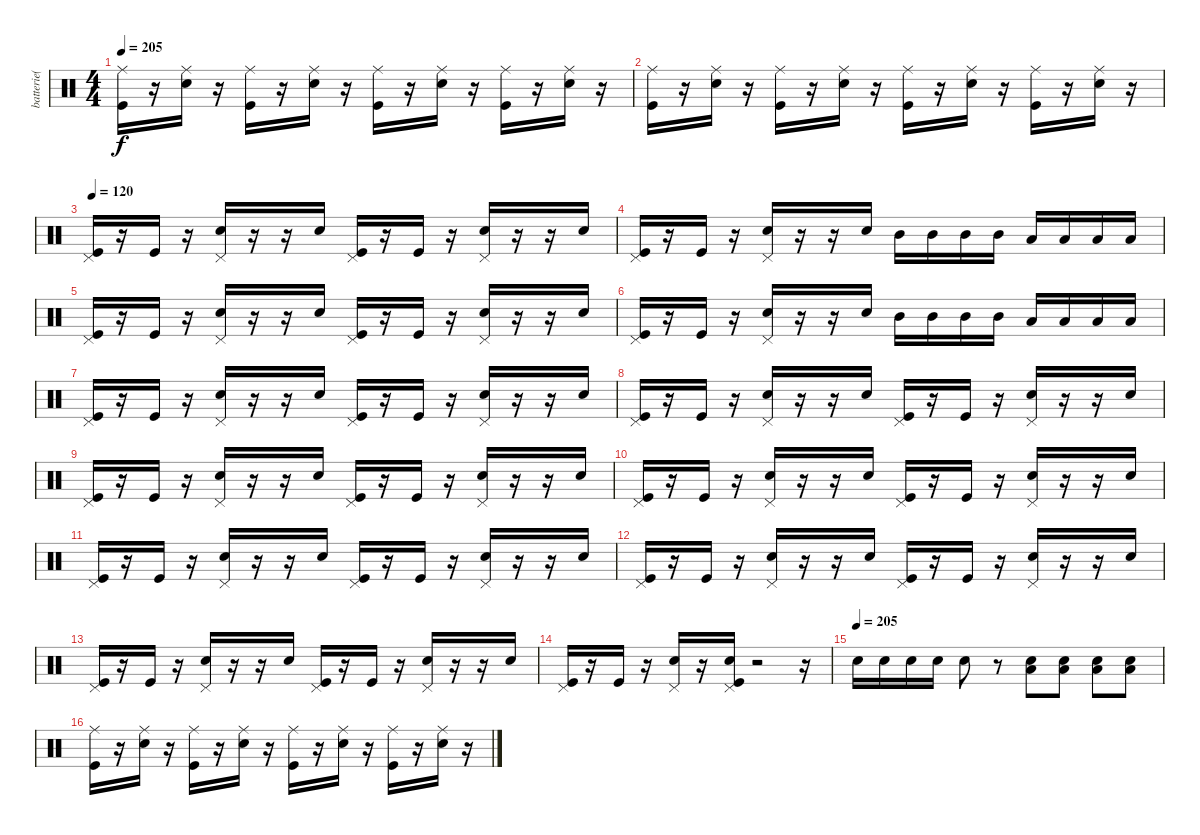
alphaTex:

\track ("batterie( Rob )" "batterie( ") {instrument percussion}
\staff {score}
\articulation defaults
\ts (4 4)
\tempo 205
\clef neutral
\ks c
("Ride (middle)" "Kick (hit)").16{dy f} r.16 ("Ride (middle)" "Snare (hit) 2").16 r.16 ("Ride (middle)" "Kick (hit)").16 r.16 ("Ride (middle)" "Snare (hit) 2").16 r.16 ("Ride (middle)" "Kick (hit)").16 r.16 ("Ride (middle)" "Snare (hit) 2").16 r.16 ("Ride (middle)" "Kick (hit)").16 r.16 ("Ride (middle)" "Snare (hit) 2").16 r.16 |
("Ride (middle)" "Kick (hit)").16 r.16 ("Ride (middle)" "Snare (hit) 2").16 r.16 ("Ride (middle)" "Kick (hit)").16 r.16 ("Ride (middle)" "Snare (hit) 2").16 r.16 ("Ride (middle)" "Kick (hit)").16 r.16 ("Ride (middle)" "Snare (hit) 2").16 r.16 ("Ride (middle)" "Kick (hit)").16 r.16 ("Ride (middle)" "Snare (hit) 2").16 r.16 |
\tempo 120
("Pedal Hi-Hat (hit)" "Kick (hit)").16 r.16 "Kick (hit)".16 r.16 ("Pedal Hi-Hat (hit)" "Snare (hit) 2").16 r.16 r.16 "Snare (hit) 2".16 ("Pedal Hi-Hat (hit)" "Kick (hit)").16 r.16 "Kick (hit)".16 r.16 ("Pedal Hi-Hat (hit)" "Snare (hit) 2").16 r.16 r.16 "Snare (hit) 2".16 |
("Pedal Hi-Hat (hit)" "Kick (hit)").16 r.16 "Kick (hit)".16 r.16 ("Pedal Hi-Hat (hit)" "Snare (hit) 2").16 r.16 r.16 "Snare (hit) 2".16 "Mid Tom (hit)".16 "Mid Tom (hit)".16 "Mid Tom (hit)".16 "Mid Tom (hit)".16 "Low Tom (hit)".16 "Low Tom (hit)".16 "Low Tom (hit)".16 "Low Tom (hit)".16 |
("Pedal Hi-Hat (hit)" "Kick (hit)").16 r.16 "Kick (hit)".16 r.16 ("Pedal Hi-Hat (hit)" "Snare (hit) 2").16 r.16 r.16 "Snare (hit) 2".16 ("Pedal Hi-Hat (hit)" "Kick (hit)").16 r.16 "Kick (hit)".16 r.16 ("Pedal Hi-Hat (hit)" "Snare (hit) 2").16 r.16 r.16 "Snare (hit) 2".16 |
("Pedal Hi-Hat (hit)" "Kick (hit)").16 r.16 "Kick (hit)".16 r.16 ("Pedal Hi-Hat (hit)" "Snare (hit) 2").16 r.16 r.16 "Snare (hit) 2".16 "Mid Tom (hit)".16 "Mid Tom (hit)".16 "Mid Tom (hit)".16 "Mid Tom (hit)".16 "Low Tom (hit)".16 "Low Tom (hit)".16 "Low Tom (hit)".16 "Low Tom (hit)".16 |
("Pedal Hi-Hat (hit)" "Kick (hit)").16 r.16 "Kick (hit)".16 r.16 ("Pedal Hi-Hat (hit)" "Snare (hit) 2").16 r.16 r.16 "Snare (hit) 2".16 ("Pedal Hi-Hat (hit)" "Kick (hit)").16 r.16 "Kick (hit)".16 r.16 ("Pedal Hi-Hat (hit)" "Snare (hit) 2").16 r.16 r.16 "Snare (hit) 2".16 |
("Pedal Hi-Hat (hit)" "Kick (hit)").16 r.16 "Kick (hit)".16 r.16 ("Pedal Hi-Hat (hit)" "Snare (hit) 2").16 r.16 r.16 "Snare (hit) 2".16 ("Pedal Hi-Hat (hit)" "Kick (hit)").16 r.16 "Kick (hit)".16 r.16 ("Pedal Hi-Hat (hit)" "Snare (hit) 2").16 r.16 r.16 "Snare (hit) 2".16 |
("Pedal Hi-Hat (hit)" "Kick (hit)").16 r.16 "Kick (hit)".16 r.16 ("Pedal Hi-Hat (hit)" "Snare (hit) 2").16 r.16 r.16 "Snare (hit) 2".16 ("Pedal Hi-Hat (hit)" "Kick (hit)").16 r.16 "Kick (hit)".16 r.16 ("Pedal Hi-Hat (hit)" "Snare (hit) 2").16 r.16 r.16 "Snare (hit) 2".16 |
("Pedal Hi-Hat (hit)" "Kick (hit)").16 r.16 "Kick (hit)".16 r.16 ("Pedal Hi-Hat (hit)" "Snare (hit) 2").16 r.16 r.16 "Snare (hit) 2".16 ("Pedal Hi-Hat (hit)" "Kick (hit)").16 r.16 "Kick (hit)".16 r.16 ("Pedal Hi-Hat (hit)" "Snare (hit) 2").16 r.16 r.16 "Snare (hit) 2".16 |
("Pedal Hi-Hat (hit)" "Kick (hit)").16 r.16 "Kick (hit)".16 r.16 ("Pedal Hi-Hat (hit)" "Snare (hit) 2").16 r.16 r.16 "Snare (hit) 2".16 ("Pedal Hi-Hat (hit)" "Kick (hit)").16 r.16 "Kick (hit)".16 r.16 ("Pedal Hi-Hat (hit)" "Snare (hit) 2").16 r.16 r.16 "Snare (hit) 2".16 |
("Pedal Hi-Hat (hit)" "Kick (hit)").16 r.16 "Kick (hit)".16 r.16 ("Pedal Hi-Hat (hit)" "Snare (hit) 2").16 r.16 r.16 "Snare (hit) 2".16 ("Pedal Hi-Hat (hit)" "Kick (hit)").16 r.16 "Kick (hit)".16 r.16 ("Pedal Hi-Hat (hit)" "Snare (hit) 2").16 r.16 r.16 "Snare (hit) 2".16 |
("Pedal Hi-Hat (hit)" "Kick (hit)").16 r.16 "Kick (hit)".16 r.16 ("Pedal Hi-Hat (hit)" "Snare (hit) 2").16 r.16 r.16 "Snare (hit) 2".16 ("Pedal Hi-Hat (hit)" "Kick (hit)").16 r.16 "Kick (hit)".16 r.16 ("Pedal Hi-Hat (hit)" "Snare (hit) 2").16 r.16 r.16 "Snare (hit) 2".16 |
("Pedal Hi-Hat (hit)" "Kick (hit)").16 r.16 "Kick (hit)".16 r.16 ("Pedal Hi-Hat (hit)" "Snare (hit) 2").16 r.16 ("Pedal Hi-Hat (hit)" "Snare (hit) 2" "Kick (hit)").16 r.2 r.16 |
\tempo (205)
"Snare (hit) 2".16 "Snare (hit) 2".16 "Snare (hit) 2".16 "Snare (hit) 2".16 "Snare (hit) 2".8 r.8 ("Low Floor Tom (hit)" "Snare (hit) 2").8 ("Low Floor Tom (hit)" "Snare (hit) 2").8 ("Low Floor Tom (hit)" "Snare (hit) 2").8 ("Low Floor Tom (hit)" "Snare (hit) 2").8 |
("Ride (middle)" "Kick (hit)").16 r.16 ("Ride (middle)" "Snare (hit) 2").16 r.16 ("Ride (middle)" "Kick (hit)").16 r.16 ("Ride (middle)" "Snare (hit) 2").16 r.16 ("Ride (middle)" "Kick (hit)").16 r.16 ("Ride (middle)" "Snare (hit) 2").16 r.16 ("Ride (middle)" "Kick (hit)").16 r.16 ("Ride (middle)" "Snare (hit) 2").16 r.16
